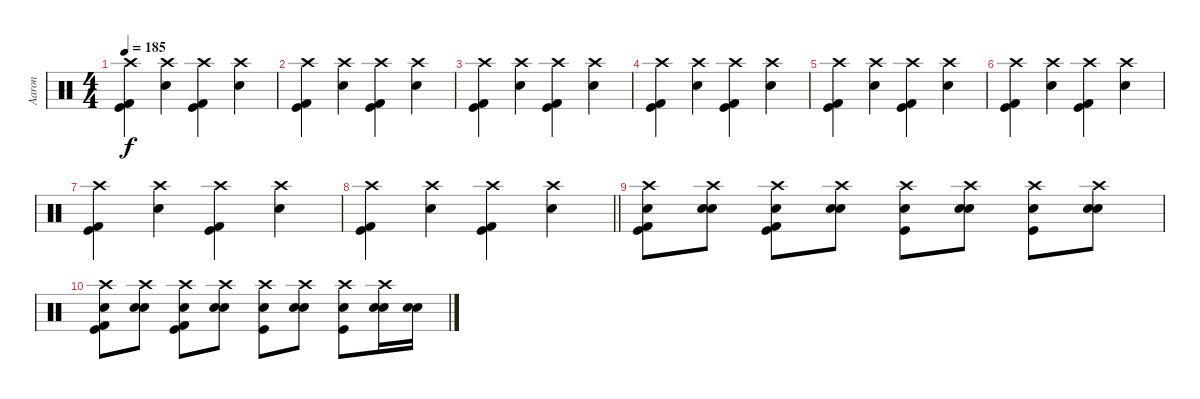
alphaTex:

\track ("Aaron" "Aaron") {instrument percussion}
\staff {score}
\articulation defaults
\ts (4 4)
\tempo 185
\clef neutral
\ks c
("Crash high (hit)" "Kick (hit)" "Kick (hit) 2").4{dy f} ("Crash high (hit)" "Snare (hit) 2").4 ("Crash high (hit)" "Kick (hit)" "Kick (hit) 2").4 ("Crash high (hit)" "Snare (hit) 2").4 |
("Crash high (hit)" "Kick (hit)" "Kick (hit) 2").4 ("Crash high (hit)" "Snare (hit) 2").4 ("Crash high (hit)" "Kick (hit)" "Kick (hit) 2").4 ("Crash high (hit)" "Snare (hit) 2").4 |
("Crash high (hit)" "Kick (hit)" "Kick (hit) 2").4 ("Crash high (hit)" "Snare (hit) 2").4 ("Crash high (hit)" "Kick (hit)" "Kick (hit) 2").4 ("Crash high (hit)" "Snare (hit) 2").4 |
("Crash high (hit)" "Kick (hit)" "Kick (hit) 2").4 ("Crash high (hit)" "Snare (hit) 2").4 ("Crash high (hit)" "Kick (hit)" "Kick (hit) 2").4 ("Crash high (hit)" "Snare (hit) 2").4 |
("Crash high (hit)" "Kick (hit)" "Kick (hit) 2").4 ("Crash high (hit)" "Snare (hit) 2").4 ("Crash high (hit)" "Kick (hit)" "Kick (hit) 2").4 ("Crash high (hit)" "Snare (hit) 2").4 |
("Crash high (hit)" "Kick (hit)" "Kick (hit) 2").4 ("Crash high (hit)" "Snare (hit) 2").4 ("Crash high (hit)" "Kick (hit)" "Kick (hit) 2").4 ("Crash high (hit)" "Snare (hit) 2").4 |
("Crash high (hit)" "Kick (hit)" "Kick (hit) 2").4 ("Crash high (hit)" "Snare (hit) 2").4 ("Crash high (hit)" "Kick (hit)" "Kick (hit) 2").4 ("Crash high (hit)" "Snare (hit) 2").4 |
\barLineRight lightlight
("Crash high (hit)" "Kick (hit)" "Kick (hit) 2").4 ("Crash high (hit)" "Snare (hit) 2").4 ("Crash high (hit)" "Kick (hit)" "Kick (hit) 2").4 ("Crash high (hit)" "Snare (hit) 2").4 |
("Electric Snare (hit)" "Crash high (hit)" "Kick (hit)" "Kick (hit) 2").8 ("Electric Snare (hit)" "Crash high (hit)" "Snare (hit) 2").8 ("Electric Snare (hit)" "Crash high (hit)" "Kick (hit)" "Kick (hit) 2").8 ("Electric Snare (hit)" "Crash high (hit)" "Snare (hit) 2").8 ("Electric Snare (hit)" "Crash high (hit)" "Kick (hit)").8 ("Electric Snare (hit)" "Crash high (hit)" "Snare (hit) 2").8 ("Electric Snare (hit)" "Crash high (hit)" "Kick (hit)").8 ("Electric Snare (hit)" "Crash high (hit)" "Snare (hit) 2").8 |
("Electric Snare (hit)" "Crash high (hit)" "Kick (hit)" "Kick (hit) 2").8 ("Electric Snare (hit)" "Crash high (hit)" "Snare (hit) 2").8 ("Electric Snare (hit)" "Crash high (hit)" "Kick (hit)" "Kick (hit) 2").8 ("Electric Snare (hit)" "Crash high (hit)" "Snare (hit) 2").8 ("Electric Snare (hit)" "Crash high (hit)" "Kick (hit)").8 ("Electric Snare (hit)" "Crash high (hit)" "Snare (hit) 2").8 ("Electric Snare (hit)" "Crash high (hit)" "Kick (hit)").8 ("Electric Snare (hit)" "Crash high (hit)" "Snare (hit) 2").16 ("Electric Snare (hit)" "Snare (hit) 2").16
